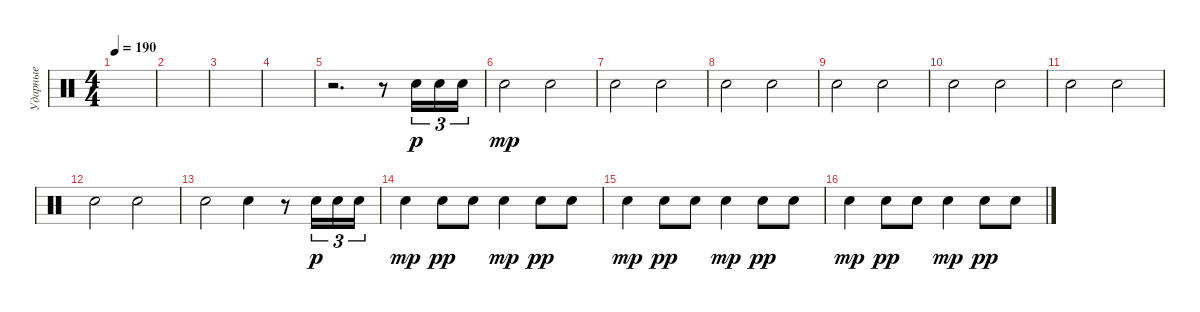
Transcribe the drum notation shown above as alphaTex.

\track ("Ударные" "Ударные") {instrument percussion}
\staff {score}
\articulation defaults
\ts (4 4)
\tempo 190
\clef neutral
\ks aminor
|
|
|
|
r.2{d} r.8 "Snare (hit) 2".16{tu (3 2) dy p} "Snare (hit) 2".16{tu (3 2)} "Snare (hit) 2".16{tu (3 2)} |
"Snare (hit) 2".2{dy mp} "Snare (hit) 2".2 |
"Snare (hit) 2".2 "Snare (hit) 2".2 |
"Snare (hit) 2".2 "Snare (hit) 2".2 |
"Snare (hit) 2".2 "Snare (hit) 2".2 |
"Snare (hit) 2".2 "Snare (hit) 2".2 |
"Snare (hit) 2".2 "Snare (hit) 2".2 |
"Snare (hit) 2".2 "Snare (hit) 2".2 |
"Snare (hit) 2".2 "Snare (hit) 2".4 r.8 "Snare (hit) 2".16{tu (3 2) dy p} "Snare (hit) 2".16{tu (3 2)} "Snare (hit) 2".16{tu (3 2)} |
"Snare (hit) 2".4{dy mp} "Snare (hit) 2".8{dy pp} "Snare (hit) 2".8 "Snare (hit) 2".4{dy mp} "Snare (hit) 2".8{dy pp} "Snare (hit) 2".8 |
"Snare (hit) 2".4{dy mp} "Snare (hit) 2".8{dy pp} "Snare (hit) 2".8 "Snare (hit) 2".4{dy mp} "Snare (hit) 2".8{dy pp} "Snare (hit) 2".8 |
"Snare (hit) 2".4{dy mp} "Snare (hit) 2".8{dy pp} "Snare (hit) 2".8 "Snare (hit) 2".4{dy mp} "Snare (hit) 2".8{dy pp} "Snare (hit) 2".8
